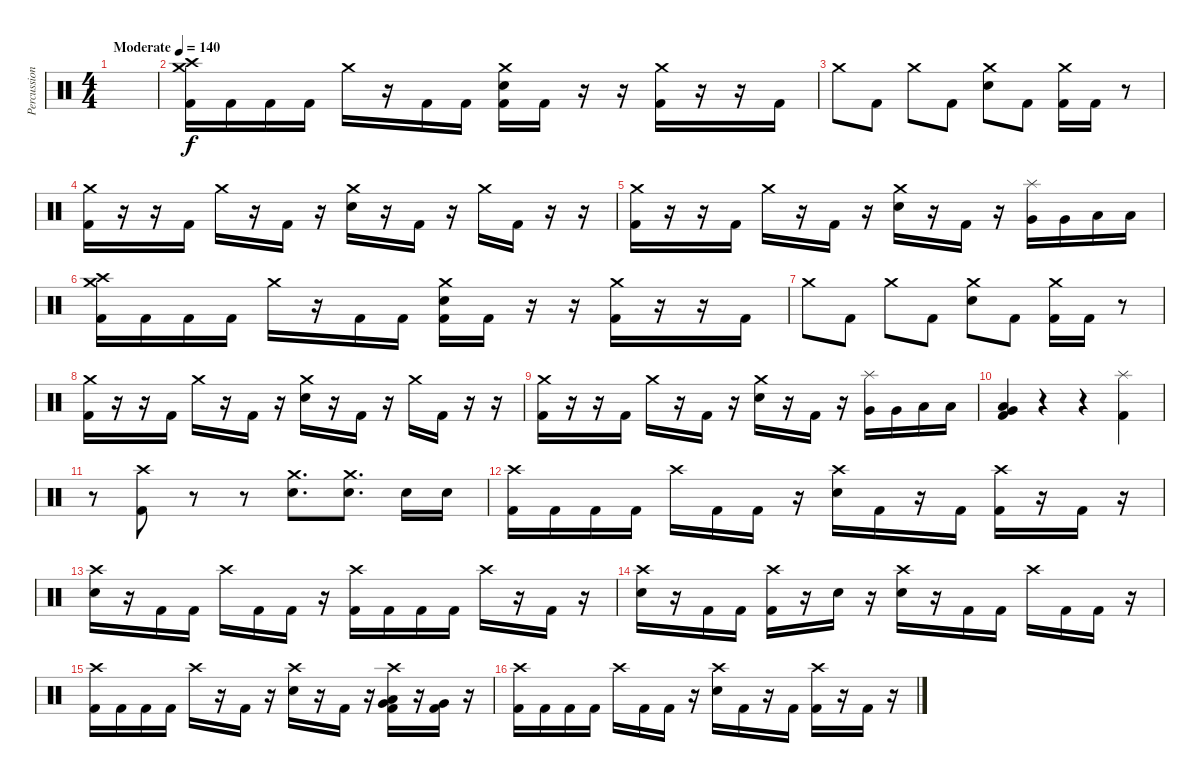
\track ("Percussion" "Percussion") {instrument percussion}
\staff {score}
\articulation defaults
\ts (4 4)
\tempo (140 "Moderate")
\clef neutral
\ks c
|
("Crash medium (hit)" "Crash high (hit)" "Kick (hit) 2").16 "Kick (hit) 2".16 "Kick (hit) 2".16 "Kick (hit) 2".16 "Crash medium (hit)".16 r.16 "Kick (hit) 2".16 "Kick (hit) 2".16 ("Crash medium (hit)" "Electric Snare (hit)" "Kick (hit) 2").16 "Kick (hit) 2".16 r.16 r.16 ("Crash medium (hit)" "Kick (hit) 2").16 r.16 r.16 "Kick (hit) 2".16 |
"Crash medium (hit)".8 "Kick (hit) 2".8 "Crash medium (hit)".8 "Kick (hit) 2".8 ("Crash medium (hit)" "Electric Snare (hit)").8 "Kick (hit) 2".8 ("Crash medium (hit)" "Kick (hit) 2").16 "Kick (hit) 2".16 r.8 |
("Crash medium (hit)" "Kick (hit) 2").16 r.16 r.16 "Kick (hit) 2".16 "Crash medium (hit)".16 r.16 "Kick (hit) 2".16 r.16 ("Crash medium (hit)" "Electric Snare (hit)").16 r.16 "Kick (hit) 2".16 r.16 "Crash medium (hit)".16 "Kick (hit) 2".16 r.16 r.16 |
("Crash medium (hit)" "Kick (hit) 2").16 r.16 r.16 "Kick (hit) 2".16 "Crash medium (hit)".16 r.16 "Kick (hit) 2".16 r.16 ("Crash medium (hit)" "Electric Snare (hit)").16 r.16 "Kick (hit) 2".16 r.16 ("Splash (hit)" "Very Low Tom (hit)").16 "Very Low Tom (hit)".16 "Low Floor Tom (hit)".16 "Low Floor Tom (hit)".16 |
("Crash medium (hit)" "Crash high (hit)" "Kick (hit) 2").16 "Kick (hit) 2".16 "Kick (hit) 2".16 "Kick (hit) 2".16 "Crash medium (hit)".16 r.16 "Kick (hit) 2".16 "Kick (hit) 2".16 ("Crash medium (hit)" "Electric Snare (hit)" "Kick (hit) 2").16 "Kick (hit) 2".16 r.16 r.16 ("Crash medium (hit)" "Kick (hit) 2").16 r.16 r.16 "Kick (hit) 2".16 |
"Crash medium (hit)".8 "Kick (hit) 2".8 "Crash medium (hit)".8 "Kick (hit) 2".8 ("Crash medium (hit)" "Electric Snare (hit)").8 "Kick (hit) 2".8 ("Crash medium (hit)" "Kick (hit) 2").16 "Kick (hit) 2".16 r.8 |
("Crash medium (hit)" "Kick (hit) 2").16 r.16 r.16 "Kick (hit) 2".16 "Crash medium (hit)".16 r.16 "Kick (hit) 2".16 r.16 ("Crash medium (hit)" "Electric Snare (hit)").16 r.16 "Kick (hit) 2".16 r.16 "Crash medium (hit)".16 "Kick (hit) 2".16 r.16 r.16 |
("Crash medium (hit)" "Kick (hit) 2").16 r.16 r.16 "Kick (hit) 2".16 "Crash medium (hit)".16 r.16 "Kick (hit) 2".16 r.16 ("Crash medium (hit)" "Electric Snare (hit)").16 r.16 "Kick (hit) 2".16 r.16 ("Splash (hit)" "Very Low Tom (hit)").16 "Very Low Tom (hit)".16 "Low Floor Tom (hit)".16 "Low Floor Tom (hit)".16 |
("Very Low Tom (hit)" "Low Floor Tom (hit)" "Kick (hit) 2").4 r.4 r.4 ("Splash (hit)" "Kick (hit) 2").4 |
r.8 ("Crash high (hit)" "Kick (hit) 2").8 r.8 r.8 ("Crash medium (hit)" "Electric Snare (hit)").8{d} ("Crash medium (hit)" "Electric Snare (hit)").8{d} "Electric Snare (hit)".16 "Electric Snare (hit)".16 |
("Crash high (hit)" "Kick (hit) 2").16 "Kick (hit) 2".16 "Kick (hit) 2".16 "Kick (hit) 2".16 "Crash high (hit)".16 "Kick (hit) 2".16 "Kick (hit) 2".16 r.16 ("Crash high (hit)" "Electric Snare (hit)").16 "Kick (hit) 2".16 r.16 "Kick (hit) 2".16 ("Crash high (hit)" "Kick (hit) 2").16 r.16 "Kick (hit) 2".16 r.16 |
("Crash high (hit)" "Electric Snare (hit)").16 r.16 "Kick (hit) 2".16 "Kick (hit) 2".16 "Crash high (hit)".16 "Kick (hit) 2".16 "Kick (hit) 2".16 r.16 ("Crash high (hit)" "Kick (hit) 2").16 "Kick (hit) 2".16 "Kick (hit) 2".16 "Kick (hit) 2".16 "Crash high (hit)".16 r.16 "Kick (hit) 2".16 r.16 |
("Crash high (hit)" "Electric Snare (hit)").16 r.16 "Kick (hit) 2".16 "Kick (hit) 2".16 ("Crash high (hit)" "Kick (hit) 2").16 r.16 "Electric Snare (hit)".16 r.16 ("Crash high (hit)" "Electric Snare (hit)").16 r.16 "Kick (hit) 2".16 "Kick (hit) 2".16 "Crash high (hit)".16 "Kick (hit) 2".16 "Kick (hit) 2".16 r.16 |
("Crash high (hit)" "Kick (hit) 2").16 "Kick (hit) 2".16 "Kick (hit) 2".16 "Kick (hit) 2".16 "Crash high (hit)".16 r.16 "Kick (hit) 2".16 r.16 ("Crash high (hit)" "Electric Snare (hit)").16 r.16 "Kick (hit) 2".16 r.16 ("Crash high (hit)" "Low Tom (hit)" "Very Low Tom (hit)" "Kick (hit) 2").16 r.16 ("Very Low Tom (hit)" "Kick (hit) 2").16 r.16 |
("Crash high (hit)" "Kick (hit) 2").16 "Kick (hit) 2".16 "Kick (hit) 2".16 "Kick (hit) 2".16 "Crash high (hit)".16 "Kick (hit) 2".16 "Kick (hit) 2".16 r.16 ("Crash high (hit)" "Electric Snare (hit)").16 "Kick (hit) 2".16 r.16 "Kick (hit) 2".16 ("Crash high (hit)" "Kick (hit) 2").16 r.16 "Kick (hit) 2".16 r.16
